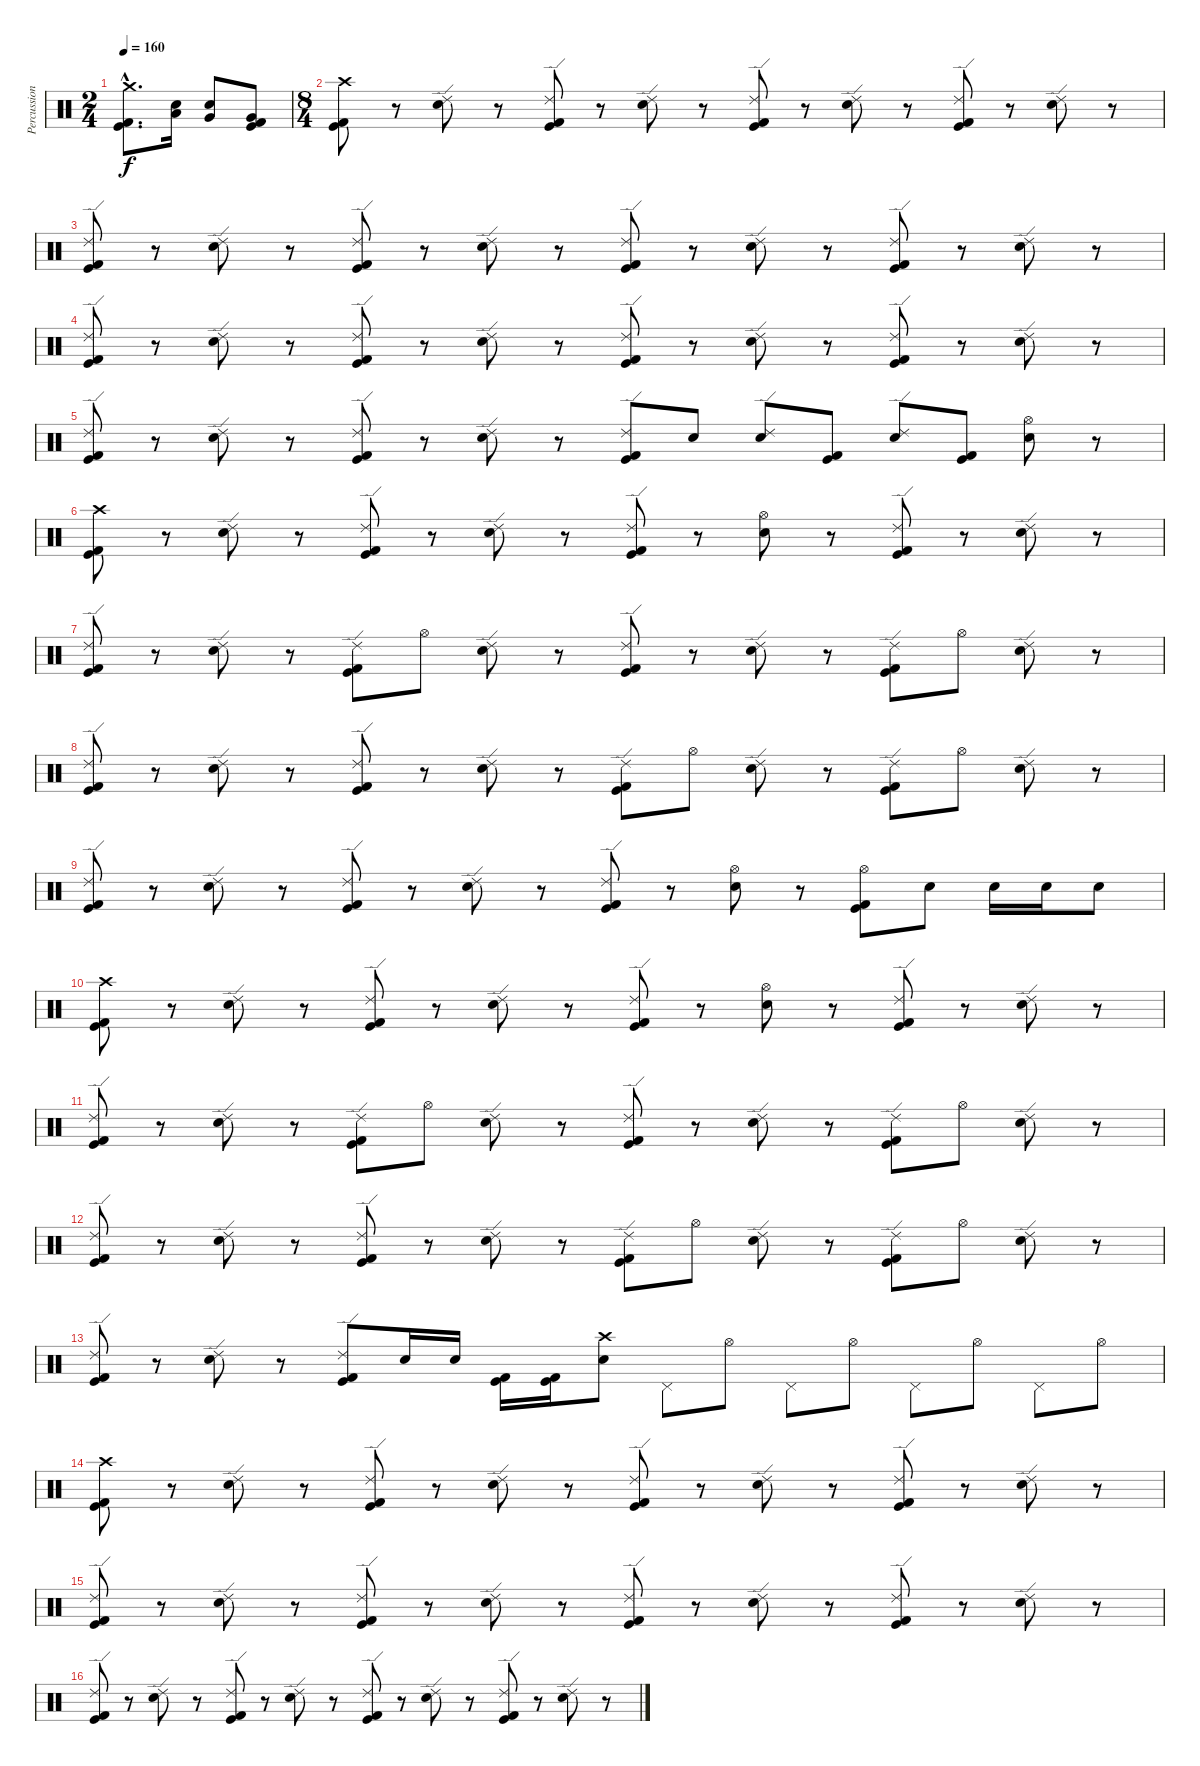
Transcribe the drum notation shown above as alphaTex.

\track ("Percussion" "Percussion") {instrument percussion}
\staff {score}
\articulation defaults
\ts (2 4)
\tempo 160
\clef neutral
\ks c
("Crash medium (hit)"{hac} "Kick (hit) 2"{hac} "Kick (hit)"{hac}).8{d dy f} ("Low Tom (hit)" "Snare (hit) 2").16 ("Very Low Tom (hit)" "Snare (hit) 2").8 ("Very Low Tom (hit)" "Kick (hit) 2" "Kick (hit)").8 |
\ts (8 4)
("Crash high (hit)" "Kick (hit) 2" "Kick (hit)").8 r.8 ("Ride (edge) 2" "Snare (hit) 2").8 r.8 ("Ride (edge) 2" "Kick (hit) 2" "Kick (hit)").8 r.8 ("Ride (edge) 2" "Snare (hit) 2").8 r.8 ("Ride (edge) 2" "Kick (hit) 2" "Kick (hit)").8 r.8 ("Ride (edge) 2" "Snare (hit) 2").8 r.8 ("Ride (edge) 2" "Kick (hit) 2" "Kick (hit)").8 r.8 ("Ride (edge) 2" "Snare (hit) 2").8 r.8 |
("Ride (edge) 2" "Kick (hit) 2" "Kick (hit)").8 r.8 ("Ride (edge) 2" "Snare (hit) 2").8 r.8 ("Ride (edge) 2" "Kick (hit) 2" "Kick (hit)").8 r.8 ("Ride (edge) 2" "Snare (hit) 2").8 r.8 ("Ride (edge) 2" "Kick (hit) 2" "Kick (hit)").8 r.8 ("Ride (edge) 2" "Snare (hit) 2").8 r.8 ("Ride (edge) 2" "Kick (hit) 2" "Kick (hit)").8 r.8 ("Ride (edge) 2" "Snare (hit) 2").8 r.8 |
("Ride (edge) 2" "Kick (hit) 2" "Kick (hit)").8 r.8 ("Ride (edge) 2" "Snare (hit) 2").8 r.8 ("Ride (edge) 2" "Kick (hit) 2" "Kick (hit)").8 r.8 ("Ride (edge) 2" "Snare (hit) 2").8 r.8 ("Ride (edge) 2" "Kick (hit) 2" "Kick (hit)").8 r.8 ("Ride (edge) 2" "Snare (hit) 2").8 r.8 ("Ride (edge) 2" "Kick (hit) 2" "Kick (hit)").8 r.8 ("Ride (edge) 2" "Snare (hit) 2").8 r.8 |
("Ride (edge) 2" "Kick (hit) 2" "Kick (hit)").8 r.8 ("Ride (edge) 2" "Snare (hit) 2").8 r.8 ("Ride (edge) 2" "Kick (hit) 2" "Kick (hit)").8 r.8 ("Ride (edge) 2" "Snare (hit) 2").8 r.8 ("Ride (edge) 2" "Kick (hit) 2" "Kick (hit)").8 "Snare (hit) 2".8 ("Ride (edge) 2" "Snare (hit) 2").8 ("Kick (hit) 2" "Kick (hit)").8 ("Ride (edge) 2" "Snare (hit) 2").8 ("Kick (hit) 2" "Kick (hit)").8 ("Hi-Hat (open)" "Snare (hit) 2").8 r.8 |
("Crash high (hit)" "Kick (hit) 2" "Kick (hit)").8 r.8 ("Ride (edge) 2" "Snare (hit) 2").8 r.8 ("Ride (edge) 2" "Kick (hit) 2" "Kick (hit)").8 r.8 ("Ride (edge) 2" "Snare (hit) 2").8 r.8 ("Ride (edge) 2" "Kick (hit) 2" "Kick (hit)").8 r.8 ("Hi-Hat (open)" "Snare (hit) 2").8 r.8 ("Ride (edge) 2" "Kick (hit) 2" "Kick (hit)").8 r.8 ("Ride (edge) 2" "Snare (hit) 2").8 r.8 |
("Ride (edge) 2" "Kick (hit) 2" "Kick (hit)").8 r.8 ("Ride (edge) 2" "Snare (hit) 2").8 r.8 ("Ride (edge) 2" "Kick (hit) 2" "Kick (hit)").8 "Hi-Hat (open)".8 ("Ride (edge) 2" "Snare (hit) 2").8 r.8 ("Ride (edge) 2" "Kick (hit) 2" "Kick (hit)").8 r.8 ("Ride (edge) 2" "Snare (hit) 2").8 r.8 ("Ride (edge) 2" "Kick (hit) 2" "Kick (hit)").8 "Hi-Hat (open)".8 ("Ride (edge) 2" "Snare (hit) 2").8 r.8 |
("Ride (edge) 2" "Kick (hit) 2" "Kick (hit)").8 r.8 ("Ride (edge) 2" "Snare (hit) 2").8 r.8 ("Ride (edge) 2" "Kick (hit) 2" "Kick (hit)").8 r.8 ("Ride (edge) 2" "Snare (hit) 2").8 r.8 ("Ride (edge) 2" "Kick (hit) 2" "Kick (hit)").8 "Hi-Hat (open)".8 ("Ride (edge) 2" "Snare (hit) 2").8 r.8 ("Ride (edge) 2" "Kick (hit) 2" "Kick (hit)").8 "Hi-Hat (open)".8 ("Ride (edge) 2" "Snare (hit) 2").8 r.8 |
("Ride (edge) 2" "Kick (hit) 2" "Kick (hit)").8 r.8 ("Ride (edge) 2" "Snare (hit) 2").8 r.8 ("Ride (edge) 2" "Kick (hit) 2" "Kick (hit)").8 r.8 ("Ride (edge) 2" "Snare (hit) 2").8 r.8 ("Ride (edge) 2" "Kick (hit) 2" "Kick (hit)").8 r.8 ("Hi-Hat (open)" "Snare (hit) 2").8 r.8 ("Hi-Hat (open)" "Kick (hit) 2" "Kick (hit)").8 "Snare (hit) 2".8 "Snare (hit) 2".16 "Snare (hit) 2".16 "Snare (hit) 2".8 |
("Crash high (hit)" "Kick (hit) 2" "Kick (hit)").8 r.8 ("Ride (edge) 2" "Snare (hit) 2").8 r.8 ("Ride (edge) 2" "Kick (hit) 2" "Kick (hit)").8 r.8 ("Ride (edge) 2" "Snare (hit) 2").8 r.8 ("Ride (edge) 2" "Kick (hit) 2" "Kick (hit)").8 r.8 ("Hi-Hat (open)" "Snare (hit) 2").8 r.8 ("Ride (edge) 2" "Kick (hit) 2" "Kick (hit)").8 r.8 ("Ride (edge) 2" "Snare (hit) 2").8 r.8 |
("Ride (edge) 2" "Kick (hit) 2" "Kick (hit)").8 r.8 ("Ride (edge) 2" "Snare (hit) 2").8 r.8 ("Ride (edge) 2" "Kick (hit) 2" "Kick (hit)").8 "Hi-Hat (open)".8 ("Ride (edge) 2" "Snare (hit) 2").8 r.8 ("Ride (edge) 2" "Kick (hit) 2" "Kick (hit)").8 r.8 ("Ride (edge) 2" "Snare (hit) 2").8 r.8 ("Ride (edge) 2" "Kick (hit) 2" "Kick (hit)").8 "Hi-Hat (open)".8 ("Ride (edge) 2" "Snare (hit) 2").8 r.8 |
("Ride (edge) 2" "Kick (hit) 2" "Kick (hit)").8 r.8 ("Ride (edge) 2" "Snare (hit) 2").8 r.8 ("Ride (edge) 2" "Kick (hit) 2" "Kick (hit)").8 r.8 ("Ride (edge) 2" "Snare (hit) 2").8 r.8 ("Ride (edge) 2" "Kick (hit) 2" "Kick (hit)").8 "Hi-Hat (open)".8 ("Ride (edge) 2" "Snare (hit) 2").8 r.8 ("Ride (edge) 2" "Kick (hit) 2" "Kick (hit)").8 "Hi-Hat (open)".8 ("Ride (edge) 2" "Snare (hit) 2").8 r.8 |
("Ride (edge) 2" "Kick (hit) 2" "Kick (hit)").8 r.8 ("Ride (edge) 2" "Snare (hit) 2").8 r.8 ("Ride (edge) 2" "Kick (hit) 2" "Kick (hit)").8 "Snare (hit) 2".16 "Snare (hit) 2".16 ("Kick (hit) 2" "Kick (hit)").16 ("Kick (hit) 2" "Kick (hit)").16 ("Crash high (hit)" "Snare (hit) 2").8 "Pedal Hi-Hat (hit)".8 "Hi-Hat (open)".8 "Pedal Hi-Hat (hit)".8 "Hi-Hat (open)".8 "Pedal Hi-Hat (hit)".8 "Hi-Hat (open)".8 "Pedal Hi-Hat (hit)".8 "Hi-Hat (open)".8 |
("Crash high (hit)" "Kick (hit) 2" "Kick (hit)").8 r.8 ("Ride (edge) 2" "Snare (hit) 2").8 r.8 ("Ride (edge) 2" "Kick (hit) 2" "Kick (hit)").8 r.8 ("Ride (edge) 2" "Snare (hit) 2").8 r.8 ("Ride (edge) 2" "Kick (hit) 2" "Kick (hit)").8 r.8 ("Ride (edge) 2" "Snare (hit) 2").8 r.8 ("Ride (edge) 2" "Kick (hit) 2" "Kick (hit)").8 r.8 ("Ride (edge) 2" "Snare (hit) 2").8 r.8 |
("Ride (edge) 2" "Kick (hit) 2" "Kick (hit)").8 r.8 ("Ride (edge) 2" "Snare (hit) 2").8 r.8 ("Ride (edge) 2" "Kick (hit) 2" "Kick (hit)").8 r.8 ("Ride (edge) 2" "Snare (hit) 2").8 r.8 ("Ride (edge) 2" "Kick (hit) 2" "Kick (hit)").8 r.8 ("Ride (edge) 2" "Snare (hit) 2").8 r.8 ("Ride (edge) 2" "Kick (hit) 2" "Kick (hit)").8 r.8 ("Ride (edge) 2" "Snare (hit) 2").8 r.8 |
("Ride (edge) 2" "Kick (hit) 2" "Kick (hit)").8 r.8 ("Ride (edge) 2" "Snare (hit) 2").8 r.8 ("Ride (edge) 2" "Kick (hit) 2" "Kick (hit)").8 r.8 ("Ride (edge) 2" "Snare (hit) 2").8 r.8 ("Ride (edge) 2" "Kick (hit) 2" "Kick (hit)").8 r.8 ("Ride (edge) 2" "Snare (hit) 2").8 r.8 ("Ride (edge) 2" "Kick (hit) 2" "Kick (hit)").8 r.8 ("Ride (edge) 2" "Snare (hit) 2").8 r.8
